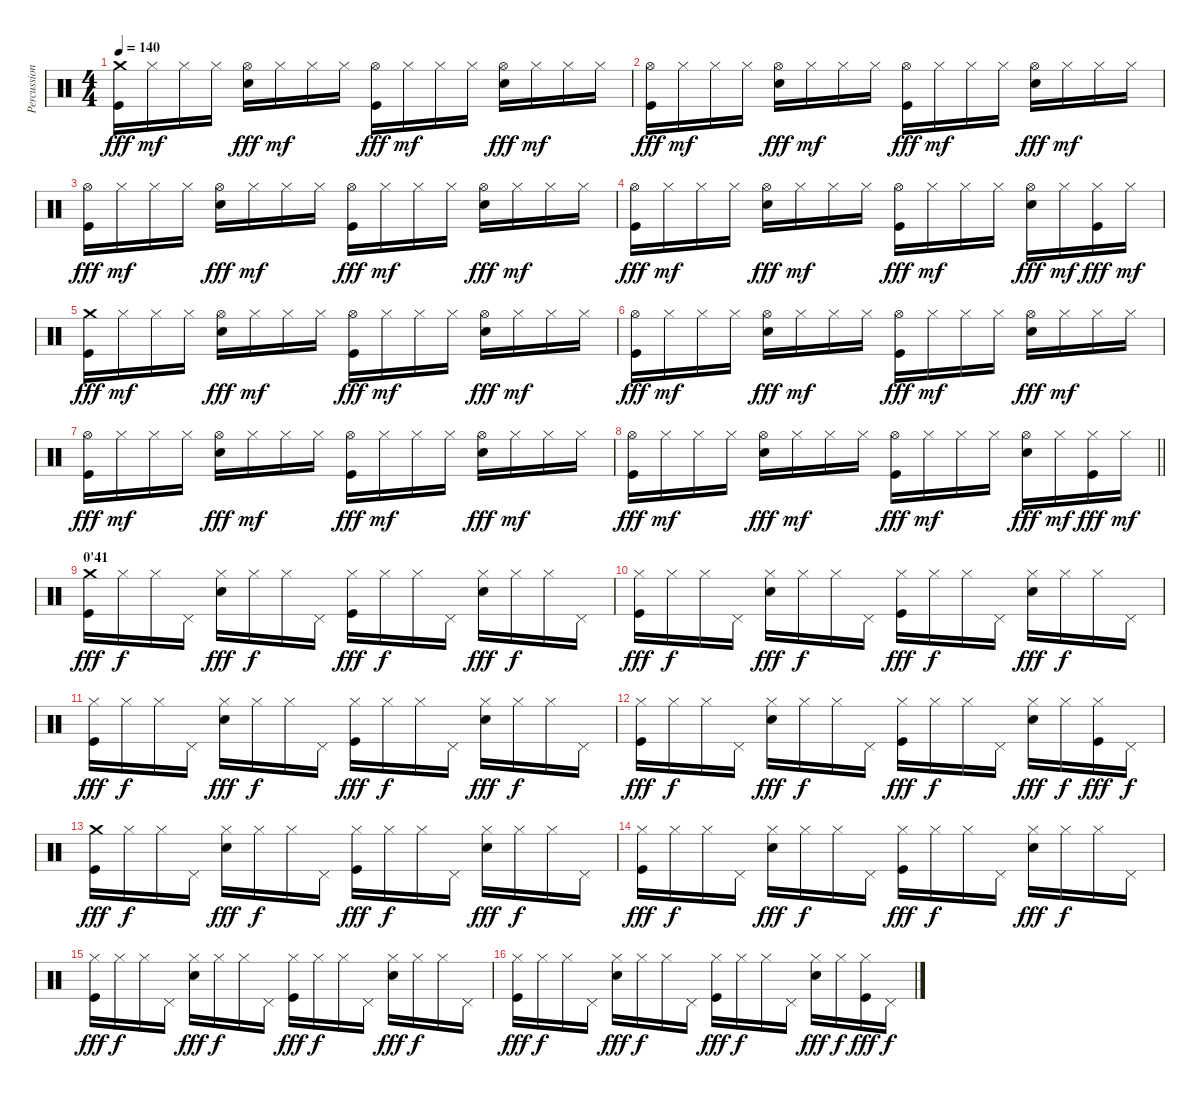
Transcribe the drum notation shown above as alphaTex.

\track ("Percussions" "Percussion") {instrument percussion}
\staff {score}
\articulation defaults
\ts (4 4)
\tempo 140
\clef neutral
\ks c
("Crash medium (hit)" "Kick (hit)").16{dy fff} "Hi-Hat (closed)".16{dy mf} "Hi-Hat (closed)".16 "Hi-Hat (closed)".16 ("Hi-Hat (open)" "Electric Snare (hit)").16{dy fff} "Hi-Hat (closed)".16{dy mf} "Hi-Hat (closed)".16 "Hi-Hat (closed)".16 ("Hi-Hat (open)" "Kick (hit)").16{dy fff} "Hi-Hat (closed)".16{dy mf} "Hi-Hat (closed)".16 "Hi-Hat (closed)".16 ("Hi-Hat (open)" "Electric Snare (hit)").16{dy fff} "Hi-Hat (closed)".16{dy mf} "Hi-Hat (closed)".16 "Hi-Hat (closed)".16 |
("Hi-Hat (open)" "Kick (hit)").16{dy fff} "Hi-Hat (closed)".16{dy mf} "Hi-Hat (closed)".16 "Hi-Hat (closed)".16 ("Hi-Hat (open)" "Electric Snare (hit)").16{dy fff} "Hi-Hat (closed)".16{dy mf} "Hi-Hat (closed)".16 "Hi-Hat (closed)".16 ("Hi-Hat (open)" "Kick (hit)").16{dy fff} "Hi-Hat (closed)".16{dy mf} "Hi-Hat (closed)".16 "Hi-Hat (closed)".16 ("Hi-Hat (open)" "Electric Snare (hit)").16{dy fff} "Hi-Hat (closed)".16{dy mf} "Hi-Hat (closed)".16 "Hi-Hat (closed)".16 |
("Hi-Hat (open)" "Kick (hit)").16{dy fff} "Hi-Hat (closed)".16{dy mf} "Hi-Hat (closed)".16 "Hi-Hat (closed)".16 ("Hi-Hat (open)" "Electric Snare (hit)").16{dy fff} "Hi-Hat (closed)".16{dy mf} "Hi-Hat (closed)".16 "Hi-Hat (closed)".16 ("Hi-Hat (open)" "Kick (hit)").16{dy fff} "Hi-Hat (closed)".16{dy mf} "Hi-Hat (closed)".16 "Hi-Hat (closed)".16 ("Hi-Hat (open)" "Electric Snare (hit)").16{dy fff} "Hi-Hat (closed)".16{dy mf} "Hi-Hat (closed)".16 "Hi-Hat (closed)".16 |
("Hi-Hat (open)" "Kick (hit)").16{dy fff} "Hi-Hat (closed)".16{dy mf} "Hi-Hat (closed)".16 "Hi-Hat (closed)".16 ("Hi-Hat (open)" "Electric Snare (hit)").16{dy fff} "Hi-Hat (closed)".16{dy mf} "Hi-Hat (closed)".16 "Hi-Hat (closed)".16 ("Hi-Hat (open)" "Kick (hit)").16{dy fff} "Hi-Hat (closed)".16{dy mf} "Hi-Hat (closed)".16 "Hi-Hat (closed)".16 ("Hi-Hat (open)" "Electric Snare (hit)").16{dy fff} "Hi-Hat (closed)".16{dy mf} ("Hi-Hat (closed)" "Kick (hit)").16{dy fff} "Hi-Hat (closed)".16{dy mf} |
("Crash medium (hit)" "Kick (hit)").16{dy fff} "Hi-Hat (closed)".16{dy mf} "Hi-Hat (closed)".16 "Hi-Hat (closed)".16 ("Hi-Hat (open)" "Electric Snare (hit)").16{dy fff} "Hi-Hat (closed)".16{dy mf} "Hi-Hat (closed)".16 "Hi-Hat (closed)".16 ("Hi-Hat (open)" "Kick (hit)").16{dy fff} "Hi-Hat (closed)".16{dy mf} "Hi-Hat (closed)".16 "Hi-Hat (closed)".16 ("Hi-Hat (open)" "Electric Snare (hit)").16{dy fff} "Hi-Hat (closed)".16{dy mf} "Hi-Hat (closed)".16 "Hi-Hat (closed)".16 |
("Hi-Hat (open)" "Kick (hit)").16{dy fff} "Hi-Hat (closed)".16{dy mf} "Hi-Hat (closed)".16 "Hi-Hat (closed)".16 ("Hi-Hat (open)" "Electric Snare (hit)").16{dy fff} "Hi-Hat (closed)".16{dy mf} "Hi-Hat (closed)".16 "Hi-Hat (closed)".16 ("Hi-Hat (open)" "Kick (hit)").16{dy fff} "Hi-Hat (closed)".16{dy mf} "Hi-Hat (closed)".16 "Hi-Hat (closed)".16 ("Hi-Hat (open)" "Electric Snare (hit)").16{dy fff} "Hi-Hat (closed)".16{dy mf} "Hi-Hat (closed)".16 "Hi-Hat (closed)".16 |
("Hi-Hat (open)" "Kick (hit)").16{dy fff} "Hi-Hat (closed)".16{dy mf} "Hi-Hat (closed)".16 "Hi-Hat (closed)".16 ("Hi-Hat (open)" "Electric Snare (hit)").16{dy fff} "Hi-Hat (closed)".16{dy mf} "Hi-Hat (closed)".16 "Hi-Hat (closed)".16 ("Hi-Hat (open)" "Kick (hit)").16{dy fff} "Hi-Hat (closed)".16{dy mf} "Hi-Hat (closed)".16 "Hi-Hat (closed)".16 ("Hi-Hat (open)" "Electric Snare (hit)").16{dy fff} "Hi-Hat (closed)".16{dy mf} "Hi-Hat (closed)".16 "Hi-Hat (closed)".16 |
\barLineRight lightlight
("Hi-Hat (open)" "Kick (hit)").16{dy fff} "Hi-Hat (closed)".16{dy mf} "Hi-Hat (closed)".16 "Hi-Hat (closed)".16 ("Hi-Hat (open)" "Electric Snare (hit)").16{dy fff} "Hi-Hat (closed)".16{dy mf} "Hi-Hat (closed)".16 "Hi-Hat (closed)".16 ("Hi-Hat (open)" "Kick (hit)").16{dy fff} "Hi-Hat (closed)".16{dy mf} "Hi-Hat (closed)".16 "Hi-Hat (closed)".16 ("Hi-Hat (open)" "Electric Snare (hit)").16{dy fff} "Hi-Hat (closed)".16{dy mf} ("Hi-Hat (closed)" "Kick (hit)").16{dy fff} "Hi-Hat (closed)".16{dy mf} |
\section ("" "0'41")
("Crash medium (hit)" "Kick (hit)").16{dy fff} "Hi-Hat (closed)".16{dy f} "Hi-Hat (closed)".16 "Pedal Hi-Hat (hit)".16 ("Hi-Hat (closed)" "Electric Snare (hit)").16{dy fff} "Hi-Hat (closed)".16{dy f} "Hi-Hat (closed)".16 "Pedal Hi-Hat (hit)".16 ("Hi-Hat (closed)" "Kick (hit)").16{dy fff} "Hi-Hat (closed)".16{dy f} "Hi-Hat (closed)".16 "Pedal Hi-Hat (hit)".16 ("Hi-Hat (closed)" "Electric Snare (hit)").16{dy fff} "Hi-Hat (closed)".16{dy f} "Hi-Hat (closed)".16 "Pedal Hi-Hat (hit)".16 |
("Hi-Hat (closed)" "Kick (hit)").16{dy fff} "Hi-Hat (closed)".16{dy f} "Hi-Hat (closed)".16 "Pedal Hi-Hat (hit)".16 ("Hi-Hat (closed)" "Electric Snare (hit)").16{dy fff} "Hi-Hat (closed)".16{dy f} "Hi-Hat (closed)".16 "Pedal Hi-Hat (hit)".16 ("Hi-Hat (closed)" "Kick (hit)").16{dy fff} "Hi-Hat (closed)".16{dy f} "Hi-Hat (closed)".16 "Pedal Hi-Hat (hit)".16 ("Hi-Hat (closed)" "Electric Snare (hit)").16{dy fff} "Hi-Hat (closed)".16{dy f} "Hi-Hat (closed)".16 "Pedal Hi-Hat (hit)".16 |
("Hi-Hat (closed)" "Kick (hit)").16{dy fff} "Hi-Hat (closed)".16{dy f} "Hi-Hat (closed)".16 "Pedal Hi-Hat (hit)".16 ("Hi-Hat (closed)" "Electric Snare (hit)").16{dy fff} "Hi-Hat (closed)".16{dy f} "Hi-Hat (closed)".16 "Pedal Hi-Hat (hit)".16 ("Hi-Hat (closed)" "Kick (hit)").16{dy fff} "Hi-Hat (closed)".16{dy f} "Hi-Hat (closed)".16 "Pedal Hi-Hat (hit)".16 ("Hi-Hat (closed)" "Electric Snare (hit)").16{dy fff} "Hi-Hat (closed)".16{dy f} "Hi-Hat (closed)".16 "Pedal Hi-Hat (hit)".16 |
("Hi-Hat (closed)" "Kick (hit)").16{dy fff} "Hi-Hat (closed)".16{dy f} "Hi-Hat (closed)".16 "Pedal Hi-Hat (hit)".16 ("Hi-Hat (closed)" "Electric Snare (hit)").16{dy fff} "Hi-Hat (closed)".16{dy f} "Hi-Hat (closed)".16 "Pedal Hi-Hat (hit)".16 ("Hi-Hat (closed)" "Kick (hit)").16{dy fff} "Hi-Hat (closed)".16{dy f} "Hi-Hat (closed)".16 "Pedal Hi-Hat (hit)".16 ("Hi-Hat (closed)" "Electric Snare (hit)").16{dy fff} "Hi-Hat (closed)".16{dy f} ("Hi-Hat (closed)" "Kick (hit)").16{dy fff} "Pedal Hi-Hat (hit)".16{dy f} |
("Crash medium (hit)" "Kick (hit)").16{dy fff} "Hi-Hat (closed)".16{dy f} "Hi-Hat (closed)".16 "Pedal Hi-Hat (hit)".16 ("Hi-Hat (closed)" "Electric Snare (hit)").16{dy fff} "Hi-Hat (closed)".16{dy f} "Hi-Hat (closed)".16 "Pedal Hi-Hat (hit)".16 ("Hi-Hat (closed)" "Kick (hit)").16{dy fff} "Hi-Hat (closed)".16{dy f} "Hi-Hat (closed)".16 "Pedal Hi-Hat (hit)".16 ("Hi-Hat (closed)" "Electric Snare (hit)").16{dy fff} "Hi-Hat (closed)".16{dy f} "Hi-Hat (closed)".16 "Pedal Hi-Hat (hit)".16 |
("Hi-Hat (closed)" "Kick (hit)").16{dy fff} "Hi-Hat (closed)".16{dy f} "Hi-Hat (closed)".16 "Pedal Hi-Hat (hit)".16 ("Hi-Hat (closed)" "Electric Snare (hit)").16{dy fff} "Hi-Hat (closed)".16{dy f} "Hi-Hat (closed)".16 "Pedal Hi-Hat (hit)".16 ("Hi-Hat (closed)" "Kick (hit)").16{dy fff} "Hi-Hat (closed)".16{dy f} "Hi-Hat (closed)".16 "Pedal Hi-Hat (hit)".16 ("Hi-Hat (closed)" "Electric Snare (hit)").16{dy fff} "Hi-Hat (closed)".16{dy f} "Hi-Hat (closed)".16 "Pedal Hi-Hat (hit)".16 |
("Hi-Hat (closed)" "Kick (hit)").16{dy fff} "Hi-Hat (closed)".16{dy f} "Hi-Hat (closed)".16 "Pedal Hi-Hat (hit)".16 ("Hi-Hat (closed)" "Electric Snare (hit)").16{dy fff} "Hi-Hat (closed)".16{dy f} "Hi-Hat (closed)".16 "Pedal Hi-Hat (hit)".16 ("Hi-Hat (closed)" "Kick (hit)").16{dy fff} "Hi-Hat (closed)".16{dy f} "Hi-Hat (closed)".16 "Pedal Hi-Hat (hit)".16 ("Hi-Hat (closed)" "Electric Snare (hit)").16{dy fff} "Hi-Hat (closed)".16{dy f} "Hi-Hat (closed)".16 "Pedal Hi-Hat (hit)".16 |
("Hi-Hat (closed)" "Kick (hit)").16{dy fff} "Hi-Hat (closed)".16{dy f} "Hi-Hat (closed)".16 "Pedal Hi-Hat (hit)".16 ("Hi-Hat (closed)" "Electric Snare (hit)").16{dy fff} "Hi-Hat (closed)".16{dy f} "Hi-Hat (closed)".16 "Pedal Hi-Hat (hit)".16 ("Hi-Hat (closed)" "Kick (hit)").16{dy fff} "Hi-Hat (closed)".16{dy f} "Hi-Hat (closed)".16 "Pedal Hi-Hat (hit)".16 ("Hi-Hat (closed)" "Electric Snare (hit)").16{dy fff} "Hi-Hat (closed)".16{dy f} ("Hi-Hat (closed)" "Kick (hit)").16{dy fff} "Pedal Hi-Hat (hit)".16{dy f}
